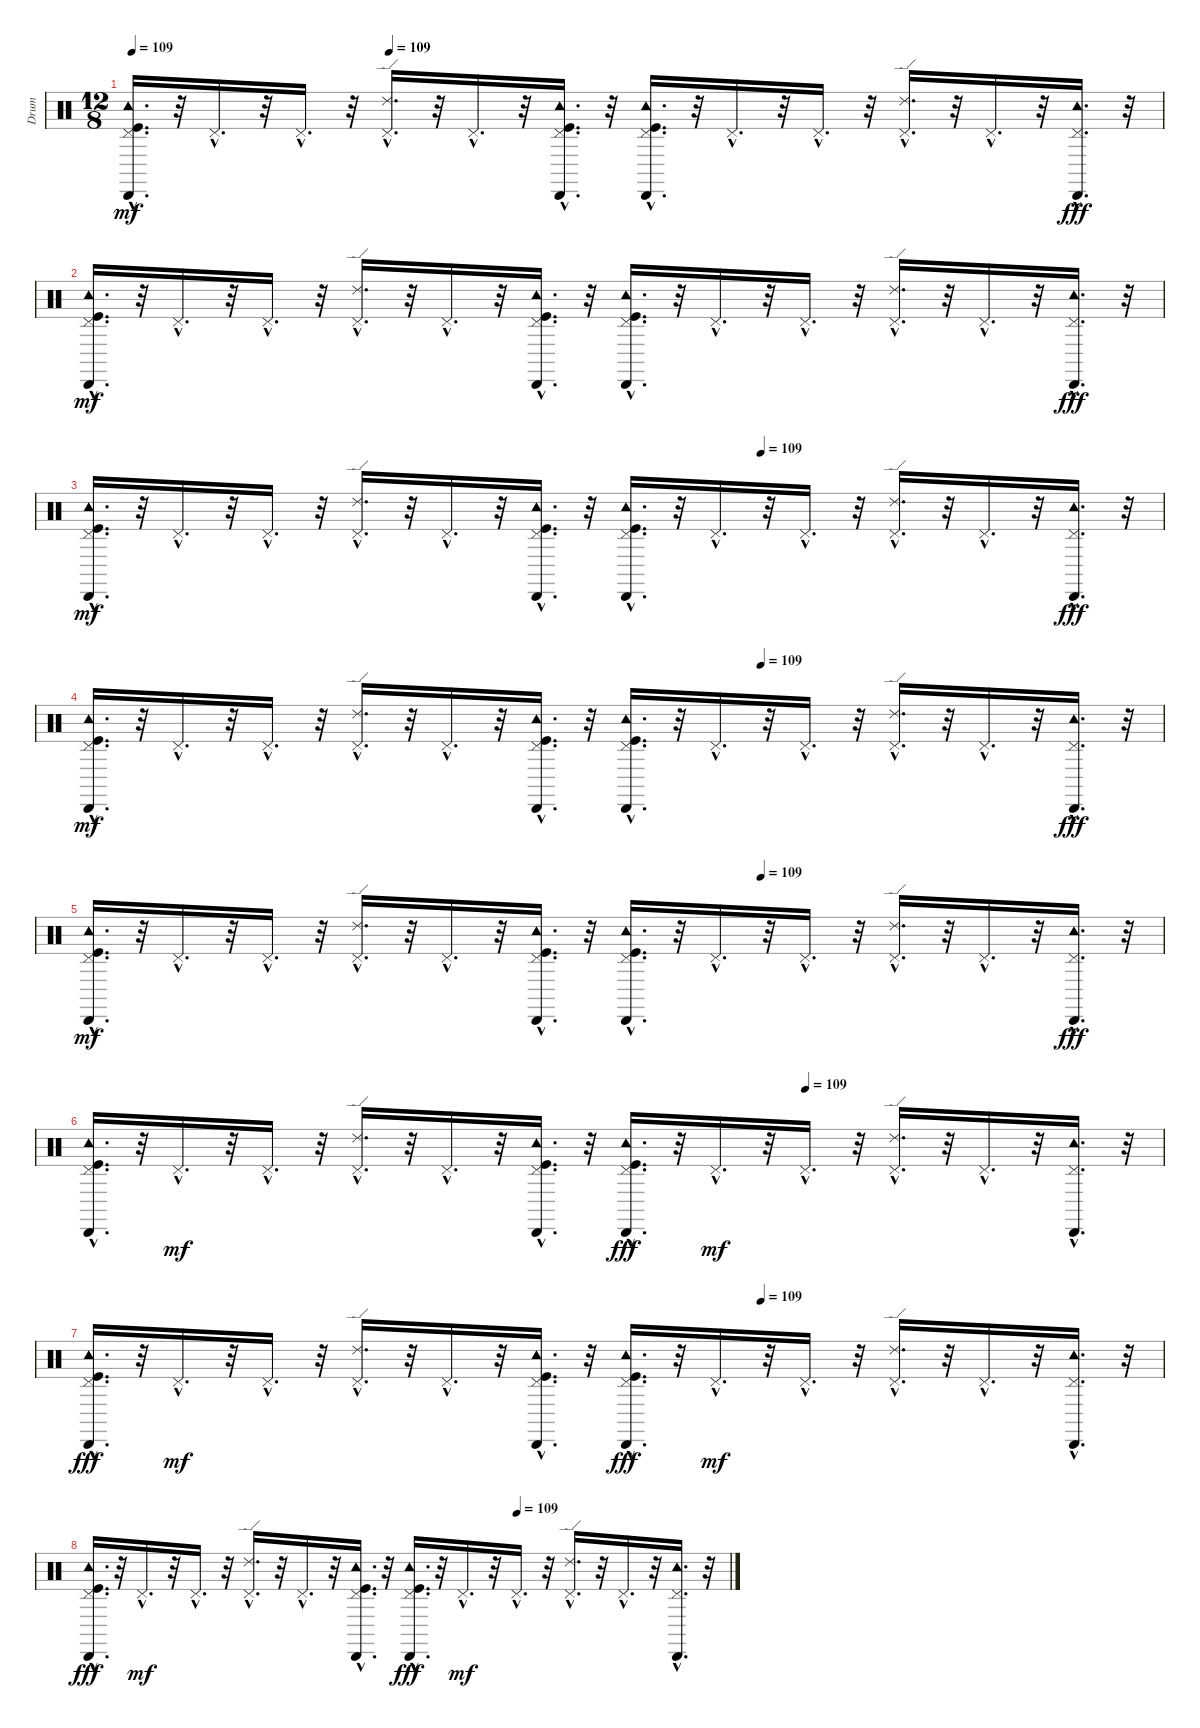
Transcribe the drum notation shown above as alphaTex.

\track ("Drum" "Drum") {instrument percussion}
\staff {score}
\articulation defaults
\ts (12 8)
\tempo 109
\tempo (109 0.25)
\clef neutral
\ks c
("Pedal Hi-Hat (hit)"{hac} "Tambourine (hit)"{hac} "Cabasa (hit)"{hac} "Kick (hit)"{hac}).16{d dy mf} r.32 "Pedal Hi-Hat (hit)"{hac}.16{d} r.32 "Pedal Hi-Hat (hit)"{hac}.16{d} r.32 ("Ride (edge) 2"{hac} "Pedal Hi-Hat (hit)"{hac}).16{d} r.32 "Pedal Hi-Hat (hit)"{hac}.16{d} r.32 ("Cabasa (hit)"{hac} "Pedal Hi-Hat (hit)"{hac} "Tambourine (hit)"{hac} "Kick (hit)"{hac}).16{d} r.32 ("Tambourine (hit)"{hac} "Pedal Hi-Hat (hit)"{hac} "Cabasa (hit)"{hac} "Kick (hit)"{hac}).16{d} r.32 "Pedal Hi-Hat (hit)"{hac}.16{d} r.32 "Pedal Hi-Hat (hit)"{hac}.16{d} r.32 ("Ride (edge) 2"{hac} "Pedal Hi-Hat (hit)"{hac}).16{d} r.32 "Pedal Hi-Hat (hit)"{hac}.16{d} r.32 ("Tambourine (hit)"{hac} "Pedal Hi-Hat (hit)"{hac} "Cabasa (hit)"{hac}).16{d dy fff} r.32 |
("Cabasa (hit)"{hac} "Pedal Hi-Hat (hit)"{hac} "Tambourine (hit)"{hac} "Kick (hit)"{hac}).16{d dy mf} r.32 "Pedal Hi-Hat (hit)"{hac}.16{d} r.32 "Pedal Hi-Hat (hit)"{hac}.16{d} r.32 ("Pedal Hi-Hat (hit)"{hac} "Ride (edge) 2"{hac}).16{d} r.32 "Pedal Hi-Hat (hit)"{hac}.16{d} r.32 ("Tambourine (hit)"{hac} "Pedal Hi-Hat (hit)"{hac} "Cabasa (hit)"{hac} "Kick (hit)"{hac}).16{d} r.32 ("Cabasa (hit)"{hac} "Pedal Hi-Hat (hit)"{hac} "Tambourine (hit)"{hac} "Kick (hit)"{hac}).16{d} r.32 "Pedal Hi-Hat (hit)"{hac}.16{d} r.32 "Pedal Hi-Hat (hit)"{hac}.16{d} r.32 ("Pedal Hi-Hat (hit)"{hac} "Ride (edge) 2"{hac}).16{d} r.32 "Pedal Hi-Hat (hit)"{hac}.16{d} r.32 ("Tambourine (hit)"{hac} "Pedal Hi-Hat (hit)"{hac} "Cabasa (hit)"{hac}).16{d dy fff} r.32 |
\tempo (109 0.625)
("Cabasa (hit)"{hac} "Pedal Hi-Hat (hit)"{hac} "Tambourine (hit)"{hac} "Kick (hit)"{hac}).16{d dy mf} r.32 "Pedal Hi-Hat (hit)"{hac}.16{d} r.32 "Pedal Hi-Hat (hit)"{hac}.16{d} r.32 ("Pedal Hi-Hat (hit)"{hac} "Ride (edge) 2"{hac}).16{d} r.32 "Pedal Hi-Hat (hit)"{hac}.16{d} r.32 ("Tambourine (hit)"{hac} "Pedal Hi-Hat (hit)"{hac} "Cabasa (hit)"{hac} "Kick (hit)"{hac}).16{d} r.32 ("Cabasa (hit)"{hac} "Pedal Hi-Hat (hit)"{hac} "Tambourine (hit)"{hac} "Kick (hit)"{hac}).16{d} r.32 "Pedal Hi-Hat (hit)"{hac}.16{d} r.32 "Pedal Hi-Hat (hit)"{hac}.16{d} r.32 ("Pedal Hi-Hat (hit)"{hac} "Ride (edge) 2"{hac}).16{d} r.32 "Pedal Hi-Hat (hit)"{hac}.16{d} r.32 ("Tambourine (hit)"{hac} "Pedal Hi-Hat (hit)"{hac} "Cabasa (hit)"{hac}).16{d dy fff} r.32 |
\tempo (109 0.625)
("Cabasa (hit)"{hac} "Pedal Hi-Hat (hit)"{hac} "Tambourine (hit)"{hac} "Kick (hit)"{hac}).16{d dy mf} r.32 "Pedal Hi-Hat (hit)"{hac}.16{d} r.32 "Pedal Hi-Hat (hit)"{hac}.16{d} r.32 ("Pedal Hi-Hat (hit)"{hac} "Ride (edge) 2"{hac}).16{d} r.32 "Pedal Hi-Hat (hit)"{hac}.16{d} r.32 ("Tambourine (hit)"{hac} "Pedal Hi-Hat (hit)"{hac} "Cabasa (hit)"{hac} "Kick (hit)"{hac}).16{d} r.32 ("Cabasa (hit)"{hac} "Pedal Hi-Hat (hit)"{hac} "Tambourine (hit)"{hac} "Kick (hit)"{hac}).16{d} r.32 "Pedal Hi-Hat (hit)"{hac}.16{d} r.32 "Pedal Hi-Hat (hit)"{hac}.16{d} r.32 ("Pedal Hi-Hat (hit)"{hac} "Ride (edge) 2"{hac}).16{d} r.32 "Pedal Hi-Hat (hit)"{hac}.16{d} r.32 ("Tambourine (hit)"{hac} "Pedal Hi-Hat (hit)"{hac} "Cabasa (hit)"{hac}).16{d dy fff} r.32 |
\tempo (109 0.625)
("Cabasa (hit)"{hac} "Pedal Hi-Hat (hit)"{hac} "Tambourine (hit)"{hac} "Kick (hit)"{hac}).16{d dy mf} r.32 "Pedal Hi-Hat (hit)"{hac}.16{d} r.32 "Pedal Hi-Hat (hit)"{hac}.16{d} r.32 ("Pedal Hi-Hat (hit)"{hac} "Ride (edge) 2"{hac}).16{d} r.32 "Pedal Hi-Hat (hit)"{hac}.16{d} r.32 ("Tambourine (hit)"{hac} "Pedal Hi-Hat (hit)"{hac} "Cabasa (hit)"{hac} "Kick (hit)"{hac}).16{d} r.32 ("Cabasa (hit)"{hac} "Pedal Hi-Hat (hit)"{hac} "Tambourine (hit)"{hac} "Kick (hit)"{hac}).16{d} r.32 "Pedal Hi-Hat (hit)"{hac}.16{d} r.32 "Pedal Hi-Hat (hit)"{hac}.16{d} r.32 ("Pedal Hi-Hat (hit)"{hac} "Ride (edge) 2"{hac}).16{d} r.32 "Pedal Hi-Hat (hit)"{hac}.16{d} r.32 ("Tambourine (hit)"{hac} "Pedal Hi-Hat (hit)"{hac} "Cabasa (hit)"{hac}).16{d dy fff} r.32 |
\tempo (109 0.6666666666666666)
("Kick (hit)"{hac} "Tambourine (hit)"{hac} "Pedal Hi-Hat (hit)"{hac} "Cabasa (hit)"{hac}).16{d} r.32 "Pedal Hi-Hat (hit)"{hac}.16{d dy mf} r.32 "Pedal Hi-Hat (hit)"{hac}.16{d} r.32 ("Ride (edge) 2"{hac} "Pedal Hi-Hat (hit)"{hac}).16{d} r.32 "Pedal Hi-Hat (hit)"{hac}.16{d} r.32 ("Kick (hit)"{hac} "Cabasa (hit)"{hac} "Pedal Hi-Hat (hit)"{hac} "Tambourine (hit)"{hac}).16{d} r.32 ("Kick (hit)"{hac} "Tambourine (hit)"{hac} "Pedal Hi-Hat (hit)"{hac} "Cabasa (hit)"{hac}).16{d dy fff} r.32 "Pedal Hi-Hat (hit)"{hac}.16{d dy mf} r.32 "Pedal Hi-Hat (hit)"{hac}.16{d} r.32 ("Ride (edge) 2"{hac} "Pedal Hi-Hat (hit)"{hac}).16{d} r.32 "Pedal Hi-Hat (hit)"{hac}.16{d} r.32 ("Cabasa (hit)"{hac} "Pedal Hi-Hat (hit)"{hac} "Tambourine (hit)"{hac}).16{d} r.32 |
\tempo (109 0.625)
("Kick (hit)"{hac} "Tambourine (hit)"{hac} "Pedal Hi-Hat (hit)"{hac} "Cabasa (hit)"{hac}).16{d dy fff} r.32 "Pedal Hi-Hat (hit)"{hac}.16{d dy mf} r.32 "Pedal Hi-Hat (hit)"{hac}.16{d} r.32 ("Ride (edge) 2"{hac} "Pedal Hi-Hat (hit)"{hac}).16{d} r.32 "Pedal Hi-Hat (hit)"{hac}.16{d} r.32 ("Kick (hit)"{hac} "Cabasa (hit)"{hac} "Pedal Hi-Hat (hit)"{hac} "Tambourine (hit)"{hac}).16{d} r.32 ("Kick (hit)"{hac} "Tambourine (hit)"{hac} "Pedal Hi-Hat (hit)"{hac} "Cabasa (hit)"{hac}).16{d dy fff} r.32 "Pedal Hi-Hat (hit)"{hac}.16{d dy mf} r.32 "Pedal Hi-Hat (hit)"{hac}.16{d} r.32 ("Ride (edge) 2"{hac} "Pedal Hi-Hat (hit)"{hac}).16{d} r.32 "Pedal Hi-Hat (hit)"{hac}.16{d} r.32 ("Cabasa (hit)"{hac} "Pedal Hi-Hat (hit)"{hac} "Tambourine (hit)"{hac}).16{d} r.32 |
\tempo (109 0.6666666666666666)
("Kick (hit)"{hac} "Tambourine (hit)"{hac} "Pedal Hi-Hat (hit)"{hac} "Cabasa (hit)"{hac}).16{d dy fff} r.32 "Pedal Hi-Hat (hit)"{hac}.16{d dy mf} r.32 "Pedal Hi-Hat (hit)"{hac}.16{d} r.32 ("Ride (edge) 2"{hac} "Pedal Hi-Hat (hit)"{hac}).16{d} r.32 "Pedal Hi-Hat (hit)"{hac}.16{d} r.32 ("Kick (hit)"{hac} "Cabasa (hit)"{hac} "Pedal Hi-Hat (hit)"{hac} "Tambourine (hit)"{hac}).16{d} r.32 ("Kick (hit)"{hac} "Tambourine (hit)"{hac} "Pedal Hi-Hat (hit)"{hac} "Cabasa (hit)"{hac}).16{d dy fff} r.32 "Pedal Hi-Hat (hit)"{hac}.16{d dy mf} r.32 "Pedal Hi-Hat (hit)"{hac}.16{d} r.32 ("Ride (edge) 2"{hac} "Pedal Hi-Hat (hit)"{hac}).16{d} r.32 "Pedal Hi-Hat (hit)"{hac}.16{d} r.32 ("Cabasa (hit)"{hac} "Pedal Hi-Hat (hit)"{hac} "Tambourine (hit)"{hac}).16{d} r.32
